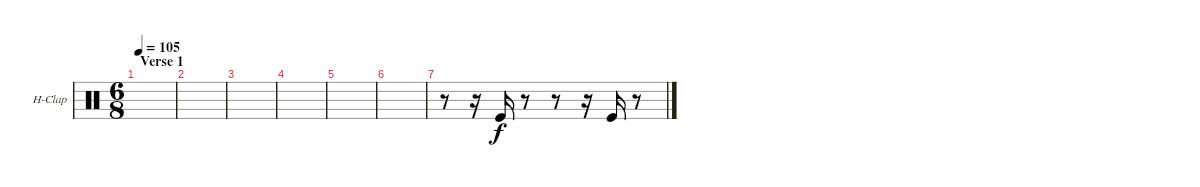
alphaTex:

\defaultSystemsLayout 4
\bracketExtendMode nobrackets
\firstSystemTrackNameOrientation horizontal
\otherSystemsTrackNameOrientation horizontal
\track ("Hand Clap" "H-Clap") {instrument percussion}
\staff {score}
\articulation defaults
\ts (6 8)
\section ("" "Verse 1")
\tempo 105
\clef neutral
\ks c
|
|
|
|
|
|
r.8 r.16 "Kick (hit)".16 r.8 r.8 r.16 "Kick (hit)".16 r.8
